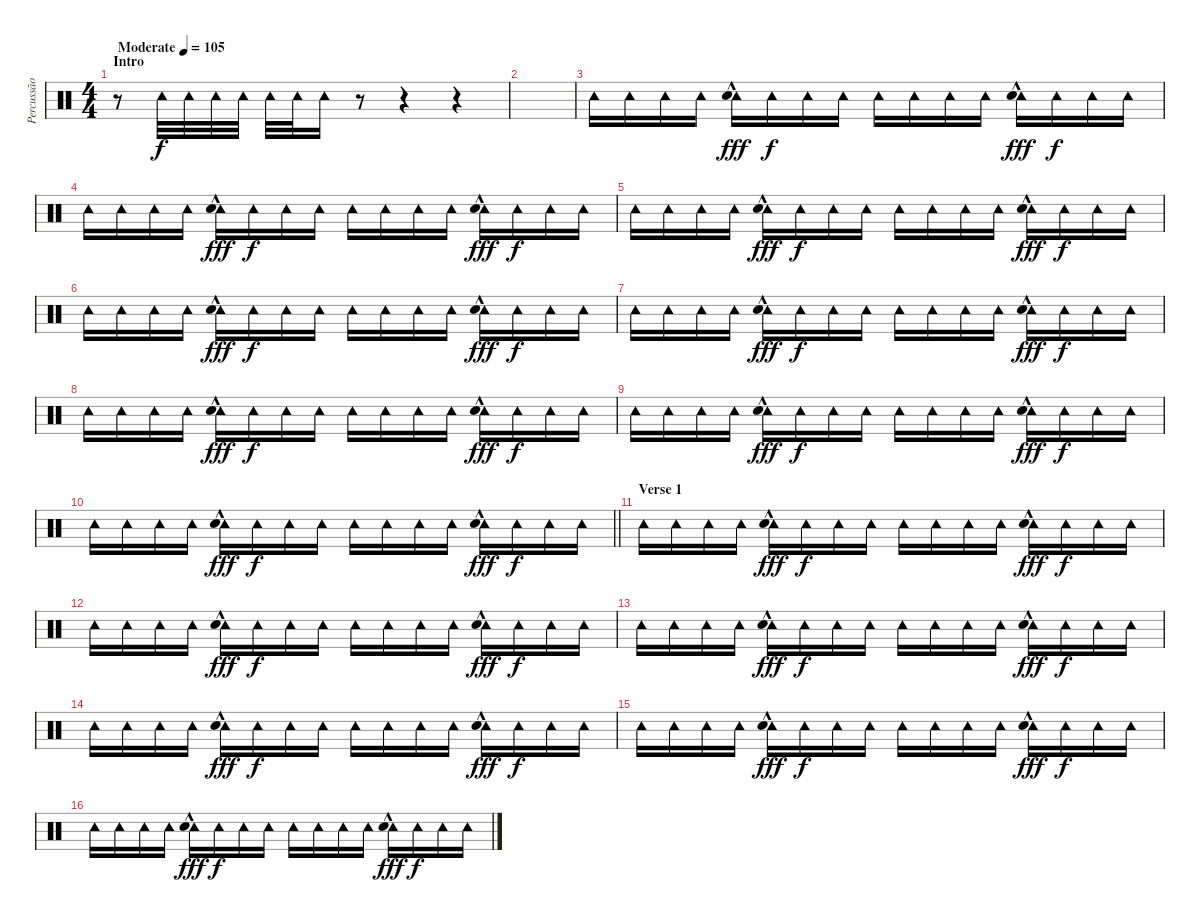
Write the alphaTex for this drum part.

\track ("Percussão" "Percussão") {instrument percussion}
\staff {score}
\articulation defaults
\ts (4 4)
\section ("" "Intro")
\tempo (105 "Moderate")
\clef neutral
\ks c
r.8{dy f} "Tambourine (hit)".32 "Tambourine (hit)".32 "Tambourine (hit)".32 "Tambourine (hit)".32 "Tambourine (hit)".32 "Tambourine (hit)".32 "Tambourine (hit)".16 r.8 r.4 r.4 |
|
"Tambourine (hit)".16 "Tambourine (hit)".16 "Tambourine (hit)".16 "Tambourine (hit)".16 ("Tambourine (hit)" "Hand Clap (hit)"{hac}).16{dy fff} "Tambourine (hit)".16{dy f} "Tambourine (hit)".16 "Tambourine (hit)".16 "Tambourine (hit)".16 "Tambourine (hit)".16 "Tambourine (hit)".16 "Tambourine (hit)".16 ("Tambourine (hit)" "Hand Clap (hit)"{hac}).16{dy fff} "Tambourine (hit)".16{dy f} "Tambourine (hit)".16 "Tambourine (hit)".16 |
"Tambourine (hit)".16 "Tambourine (hit)".16 "Tambourine (hit)".16 "Tambourine (hit)".16 ("Tambourine (hit)" "Hand Clap (hit)"{hac}).16{dy fff} "Tambourine (hit)".16{dy f} "Tambourine (hit)".16 "Tambourine (hit)".16 "Tambourine (hit)".16 "Tambourine (hit)".16 "Tambourine (hit)".16 "Tambourine (hit)".16 ("Tambourine (hit)" "Hand Clap (hit)"{hac}).16{dy fff} "Tambourine (hit)".16{dy f} "Tambourine (hit)".16 "Tambourine (hit)".16 |
"Tambourine (hit)".16 "Tambourine (hit)".16 "Tambourine (hit)".16 "Tambourine (hit)".16 ("Tambourine (hit)" "Hand Clap (hit)"{hac}).16{dy fff} "Tambourine (hit)".16{dy f} "Tambourine (hit)".16 "Tambourine (hit)".16 "Tambourine (hit)".16 "Tambourine (hit)".16 "Tambourine (hit)".16 "Tambourine (hit)".16 ("Tambourine (hit)" "Hand Clap (hit)"{hac}).16{dy fff} "Tambourine (hit)".16{dy f} "Tambourine (hit)".16 "Tambourine (hit)".16 |
"Tambourine (hit)".16 "Tambourine (hit)".16 "Tambourine (hit)".16 "Tambourine (hit)".16 ("Tambourine (hit)" "Hand Clap (hit)"{hac}).16{dy fff} "Tambourine (hit)".16{dy f} "Tambourine (hit)".16 "Tambourine (hit)".16 "Tambourine (hit)".16 "Tambourine (hit)".16 "Tambourine (hit)".16 "Tambourine (hit)".16 ("Tambourine (hit)" "Hand Clap (hit)"{hac}).16{dy fff} "Tambourine (hit)".16{dy f} "Tambourine (hit)".16 "Tambourine (hit)".16 |
"Tambourine (hit)".16 "Tambourine (hit)".16 "Tambourine (hit)".16 "Tambourine (hit)".16 ("Tambourine (hit)" "Hand Clap (hit)"{hac}).16{dy fff} "Tambourine (hit)".16{dy f} "Tambourine (hit)".16 "Tambourine (hit)".16 "Tambourine (hit)".16 "Tambourine (hit)".16 "Tambourine (hit)".16 "Tambourine (hit)".16 ("Tambourine (hit)" "Hand Clap (hit)"{hac}).16{dy fff} "Tambourine (hit)".16{dy f} "Tambourine (hit)".16 "Tambourine (hit)".16 |
"Tambourine (hit)".16 "Tambourine (hit)".16 "Tambourine (hit)".16 "Tambourine (hit)".16 ("Tambourine (hit)" "Hand Clap (hit)"{hac}).16{dy fff} "Tambourine (hit)".16{dy f} "Tambourine (hit)".16 "Tambourine (hit)".16 "Tambourine (hit)".16 "Tambourine (hit)".16 "Tambourine (hit)".16 "Tambourine (hit)".16 ("Tambourine (hit)" "Hand Clap (hit)"{hac}).16{dy fff} "Tambourine (hit)".16{dy f} "Tambourine (hit)".16 "Tambourine (hit)".16 |
"Tambourine (hit)".16 "Tambourine (hit)".16 "Tambourine (hit)".16 "Tambourine (hit)".16 ("Tambourine (hit)" "Hand Clap (hit)"{hac}).16{dy fff} "Tambourine (hit)".16{dy f} "Tambourine (hit)".16 "Tambourine (hit)".16 "Tambourine (hit)".16 "Tambourine (hit)".16 "Tambourine (hit)".16 "Tambourine (hit)".16 ("Tambourine (hit)" "Hand Clap (hit)"{hac}).16{dy fff} "Tambourine (hit)".16{dy f} "Tambourine (hit)".16 "Tambourine (hit)".16 |
\barLineRight lightlight "Tambourine (hit)".16 "Tambourine (hit)".16 "Tambourine (hit)".16 "Tambourine (hit)".16
("Tambourine (hit)" "Hand Clap (hit)"{hac}).16{dy fff} "Tambourine (hit)".16{dy f} "Tambourine (hit)".16 "Tambourine (hit)".16 "Tambourine (hit)".16 "Tambourine (hit)".16 "Tambourine (hit)".16 "Tambourine (hit)".16 ("Tambourine (hit)" "Hand Clap (hit)"{hac}).16{dy fff} "Tambourine (hit)".16{dy f} "Tambourine (hit)".16 "Tambourine (hit)".16 |
\section ("" "Verse 1")
"Tambourine (hit)".16 "Tambourine (hit)".16 "Tambourine (hit)".16 "Tambourine (hit)".16 ("Tambourine (hit)" "Hand Clap (hit)"{hac}).16{dy fff} "Tambourine (hit)".16{dy f} "Tambourine (hit)".16 "Tambourine (hit)".16 "Tambourine (hit)".16 "Tambourine (hit)".16 "Tambourine (hit)".16 "Tambourine (hit)".16 ("Tambourine (hit)" "Hand Clap (hit)"{hac}).16{dy fff} "Tambourine (hit)".16{dy f} "Tambourine (hit)".16 "Tambourine (hit)".16 |
"Tambourine (hit)".16 "Tambourine (hit)".16 "Tambourine (hit)".16 "Tambourine (hit)".16 ("Tambourine (hit)" "Hand Clap (hit)"{hac}).16{dy fff} "Tambourine (hit)".16{dy f} "Tambourine (hit)".16 "Tambourine (hit)".16 "Tambourine (hit)".16 "Tambourine (hit)".16 "Tambourine (hit)".16 "Tambourine (hit)".16 ("Tambourine (hit)" "Hand Clap (hit)"{hac}).16{dy fff} "Tambourine (hit)".16{dy f} "Tambourine (hit)".16 "Tambourine (hit)".16 |
"Tambourine (hit)".16 "Tambourine (hit)".16 "Tambourine (hit)".16 "Tambourine (hit)".16 ("Tambourine (hit)" "Hand Clap (hit)"{hac}).16{dy fff} "Tambourine (hit)".16{dy f} "Tambourine (hit)".16 "Tambourine (hit)".16 "Tambourine (hit)".16 "Tambourine (hit)".16 "Tambourine (hit)".16 "Tambourine (hit)".16 ("Tambourine (hit)" "Hand Clap (hit)"{hac}).16{dy fff} "Tambourine (hit)".16{dy f} "Tambourine (hit)".16 "Tambourine (hit)".16 |
"Tambourine (hit)".16 "Tambourine (hit)".16 "Tambourine (hit)".16 "Tambourine (hit)".16 ("Tambourine (hit)" "Hand Clap (hit)"{hac}).16{dy fff} "Tambourine (hit)".16{dy f} "Tambourine (hit)".16 "Tambourine (hit)".16 "Tambourine (hit)".16 "Tambourine (hit)".16 "Tambourine (hit)".16 "Tambourine (hit)".16 ("Tambourine (hit)" "Hand Clap (hit)"{hac}).16{dy fff} "Tambourine (hit)".16{dy f} "Tambourine (hit)".16 "Tambourine (hit)".16 |
"Tambourine (hit)".16 "Tambourine (hit)".16 "Tambourine (hit)".16 "Tambourine (hit)".16 ("Tambourine (hit)" "Hand Clap (hit)"{hac}).16{dy fff} "Tambourine (hit)".16{dy f} "Tambourine (hit)".16 "Tambourine (hit)".16 "Tambourine (hit)".16 "Tambourine (hit)".16 "Tambourine (hit)".16 "Tambourine (hit)".16 ("Tambourine (hit)" "Hand Clap (hit)"{hac}).16{dy fff} "Tambourine (hit)".16{dy f} "Tambourine (hit)".16 "Tambourine (hit)".16 |
"Tambourine (hit)".16 "Tambourine (hit)".16 "Tambourine (hit)".16 "Tambourine (hit)".16 ("Tambourine (hit)" "Hand Clap (hit)"{hac}).16{dy fff} "Tambourine (hit)".16{dy f} "Tambourine (hit)".16 "Tambourine (hit)".16 "Tambourine (hit)".16 "Tambourine (hit)".16 "Tambourine (hit)".16 "Tambourine (hit)".16 ("Tambourine (hit)" "Hand Clap (hit)"{hac}).16{dy fff} "Tambourine (hit)".16{dy f} "Tambourine (hit)".16 "Tambourine (hit)".16
